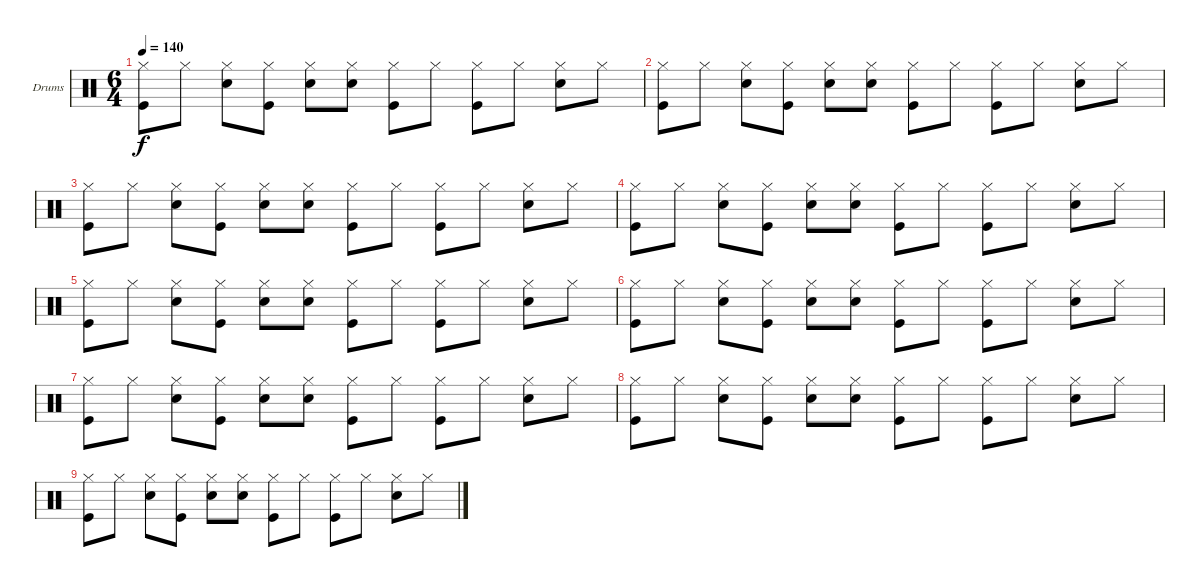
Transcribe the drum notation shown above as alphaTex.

\bracketExtendMode groupsimilarinstruments
\firstSystemTrackNameOrientation horizontal
\otherSystemsTrackNameOrientation horizontal
\track ("Peter Ulrich (Drums)" "Drums") {instrument percussion}
\staff {score}
\articulation defaults
\ts (6 4)
\tempo 140
\clef neutral
\ks c
("Hi-Hat (closed)" "Kick (hit)").8{dy f} "Hi-Hat (closed)".8 ("Hi-Hat (closed)" "Snare (hit) 2").8 ("Hi-Hat (closed)" "Kick (hit)").8 ("Hi-Hat (closed)" "Snare (hit) 2").8 ("Hi-Hat (closed)" "Snare (hit) 2").8 ("Hi-Hat (closed)" "Kick (hit)").8 "Hi-Hat (closed)".8 ("Hi-Hat (closed)" "Kick (hit)").8 "Hi-Hat (closed)".8 ("Hi-Hat (closed)" "Snare (hit) 2").8 "Hi-Hat (closed)".8 |
("Hi-Hat (closed)" "Kick (hit)").8 "Hi-Hat (closed)".8 ("Hi-Hat (closed)" "Snare (hit) 2").8 ("Hi-Hat (closed)" "Kick (hit)").8 ("Hi-Hat (closed)" "Snare (hit) 2").8 ("Hi-Hat (closed)" "Snare (hit) 2").8 ("Hi-Hat (closed)" "Kick (hit)").8 "Hi-Hat (closed)".8 ("Hi-Hat (closed)" "Kick (hit)").8 "Hi-Hat (closed)".8 ("Hi-Hat (closed)" "Snare (hit) 2").8 "Hi-Hat (closed)".8 |
("Hi-Hat (closed)" "Kick (hit)").8 "Hi-Hat (closed)".8 ("Hi-Hat (closed)" "Snare (hit) 2").8 ("Hi-Hat (closed)" "Kick (hit)").8 ("Hi-Hat (closed)" "Snare (hit) 2").8 ("Hi-Hat (closed)" "Snare (hit) 2").8 ("Hi-Hat (closed)" "Kick (hit)").8 "Hi-Hat (closed)".8 ("Hi-Hat (closed)" "Kick (hit)").8 "Hi-Hat (closed)".8 ("Hi-Hat (closed)" "Snare (hit) 2").8 "Hi-Hat (closed)".8 |
("Hi-Hat (closed)" "Kick (hit)").8 "Hi-Hat (closed)".8 ("Hi-Hat (closed)" "Snare (hit) 2").8 ("Hi-Hat (closed)" "Kick (hit)").8 ("Hi-Hat (closed)" "Snare (hit) 2").8 ("Hi-Hat (closed)" "Snare (hit) 2").8 ("Hi-Hat (closed)" "Kick (hit)").8 "Hi-Hat (closed)".8 ("Hi-Hat (closed)" "Kick (hit)").8 "Hi-Hat (closed)".8 ("Hi-Hat (closed)" "Snare (hit) 2").8 "Hi-Hat (closed)".8 |
("Hi-Hat (closed)" "Kick (hit)").8 "Hi-Hat (closed)".8 ("Hi-Hat (closed)" "Snare (hit) 2").8 ("Hi-Hat (closed)" "Kick (hit)").8 ("Hi-Hat (closed)" "Snare (hit) 2").8 ("Hi-Hat (closed)" "Snare (hit) 2").8 ("Hi-Hat (closed)" "Kick (hit)").8 "Hi-Hat (closed)".8 ("Hi-Hat (closed)" "Kick (hit)").8 "Hi-Hat (closed)".8 ("Hi-Hat (closed)" "Snare (hit) 2").8 "Hi-Hat (closed)".8 |
("Hi-Hat (closed)" "Kick (hit)").8 "Hi-Hat (closed)".8 ("Hi-Hat (closed)" "Snare (hit) 2").8 ("Hi-Hat (closed)" "Kick (hit)").8 ("Hi-Hat (closed)" "Snare (hit) 2").8 ("Hi-Hat (closed)" "Snare (hit) 2").8 ("Hi-Hat (closed)" "Kick (hit)").8 "Hi-Hat (closed)".8 ("Hi-Hat (closed)" "Kick (hit)").8 "Hi-Hat (closed)".8 ("Hi-Hat (closed)" "Snare (hit) 2").8 "Hi-Hat (closed)".8 |
("Hi-Hat (closed)" "Kick (hit)").8 "Hi-Hat (closed)".8 ("Hi-Hat (closed)" "Snare (hit) 2").8 ("Hi-Hat (closed)" "Kick (hit)").8 ("Hi-Hat (closed)" "Snare (hit) 2").8 ("Hi-Hat (closed)" "Snare (hit) 2").8 ("Hi-Hat (closed)" "Kick (hit)").8 "Hi-Hat (closed)".8 ("Hi-Hat (closed)" "Kick (hit)").8 "Hi-Hat (closed)".8 ("Hi-Hat (closed)" "Snare (hit) 2").8 "Hi-Hat (closed)".8 |
("Hi-Hat (closed)" "Kick (hit)").8 "Hi-Hat (closed)".8 ("Hi-Hat (closed)" "Snare (hit) 2").8 ("Hi-Hat (closed)" "Kick (hit)").8 ("Hi-Hat (closed)" "Snare (hit) 2").8 ("Hi-Hat (closed)" "Snare (hit) 2").8 ("Hi-Hat (closed)" "Kick (hit)").8 "Hi-Hat (closed)".8 ("Hi-Hat (closed)" "Kick (hit)").8 "Hi-Hat (closed)".8 ("Hi-Hat (closed)" "Snare (hit) 2").8 "Hi-Hat (closed)".8 |
("Hi-Hat (closed)" "Kick (hit)").8 "Hi-Hat (closed)".8 ("Hi-Hat (closed)" "Snare (hit) 2").8 ("Hi-Hat (closed)" "Kick (hit)").8 ("Hi-Hat (closed)" "Snare (hit) 2").8 ("Hi-Hat (closed)" "Snare (hit) 2").8 ("Hi-Hat (closed)" "Kick (hit)").8 "Hi-Hat (closed)".8 ("Hi-Hat (closed)" "Kick (hit)").8 "Hi-Hat (closed)".8 ("Hi-Hat (closed)" "Snare (hit) 2").8 "Hi-Hat (closed)".8
